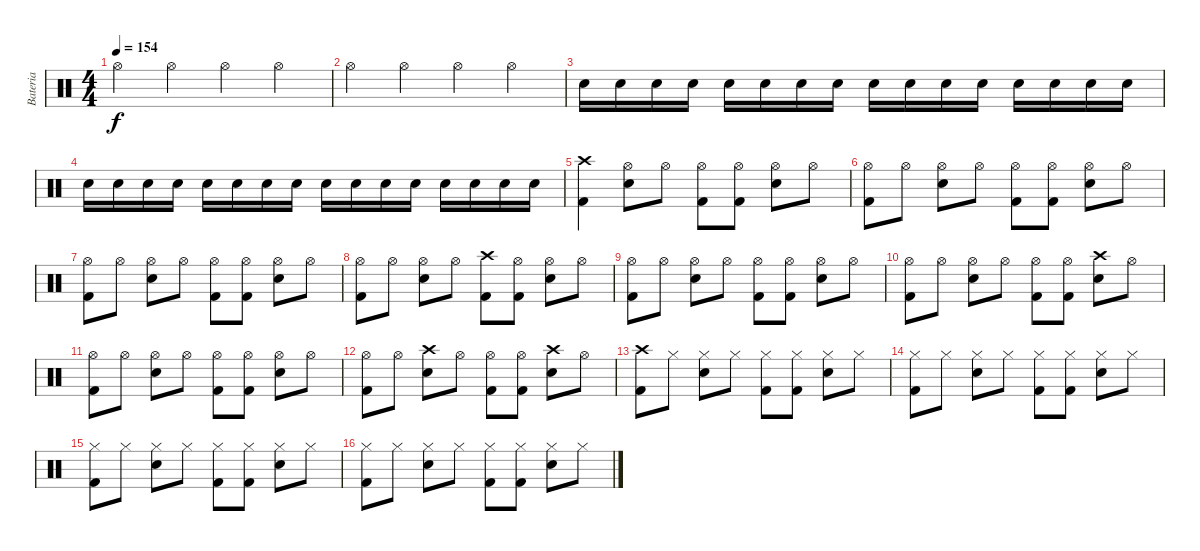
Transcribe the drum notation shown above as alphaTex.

\track ("Bateria" "Bateria") {instrument percussion}
\staff {score}
\articulation defaults
\ts (4 4)
\tempo 154
\clef neutral
\ks c "Hi-Hat (open)".4{dy f} "Hi-Hat (open)".4 "Hi-Hat (open)".4 "Hi-Hat (open)".4
|
"Hi-Hat (open)".4 "Hi-Hat (open)".4 "Hi-Hat (open)".4 "Hi-Hat (open)".4 |
"Electric Snare (hit)".16 "Electric Snare (hit)".16 "Electric Snare (hit)".16 "Electric Snare (hit)".16 "Electric Snare (hit)".16 "Electric Snare (hit)".16 "Electric Snare (hit)".16 "Electric Snare (hit)".16 "Electric Snare (hit)".16 "Electric Snare (hit)".16 "Electric Snare (hit)".16 "Electric Snare (hit)".16 "Electric Snare (hit)".16 "Electric Snare (hit)".16 "Electric Snare (hit)".16 "Electric Snare (hit)".16 |
"Electric Snare (hit)".16 "Electric Snare (hit)".16 "Electric Snare (hit)".16 "Electric Snare (hit)".16 "Electric Snare (hit)".16 "Electric Snare (hit)".16 "Electric Snare (hit)".16 "Electric Snare (hit)".16 "Electric Snare (hit)".16 "Electric Snare (hit)".16 "Electric Snare (hit)".16 "Electric Snare (hit)".16 "Electric Snare (hit)".16 "Electric Snare (hit)".16 "Electric Snare (hit)".16 "Electric Snare (hit)".16 |
("Kick (hit) 2" "Crash high (hit)").4 ("Electric Snare (hit)" "Hi-Hat (open)").8 "Hi-Hat (open)".8 ("Kick (hit) 2" "Hi-Hat (open)").8 ("Kick (hit) 2" "Hi-Hat (open)").8 ("Electric Snare (hit)" "Hi-Hat (open)").8 "Hi-Hat (open)".8 |
("Kick (hit) 2" "Hi-Hat (open)").8 "Hi-Hat (open)".8 ("Electric Snare (hit)" "Hi-Hat (open)").8 "Hi-Hat (open)".8 ("Kick (hit) 2" "Hi-Hat (open)").8 ("Kick (hit) 2" "Hi-Hat (open)").8 ("Electric Snare (hit)" "Hi-Hat (open)").8 "Hi-Hat (open)".8 |
("Kick (hit) 2" "Hi-Hat (open)").8 "Hi-Hat (open)".8 ("Electric Snare (hit)" "Hi-Hat (open)").8 "Hi-Hat (open)".8 ("Kick (hit) 2" "Hi-Hat (open)").8 ("Kick (hit) 2" "Hi-Hat (open)").8 ("Electric Snare (hit)" "Hi-Hat (open)").8 "Hi-Hat (open)".8 |
("Kick (hit) 2" "Hi-Hat (open)").8 "Hi-Hat (open)".8 ("Electric Snare (hit)" "Hi-Hat (open)").8 "Hi-Hat (open)".8 ("Kick (hit) 2" "Crash high (hit)").8 ("Kick (hit) 2" "Hi-Hat (open)").8 ("Electric Snare (hit)" "Hi-Hat (open)").8 "Hi-Hat (open)".8 |
("Kick (hit) 2" "Hi-Hat (open)").8 "Hi-Hat (open)".8 ("Electric Snare (hit)" "Hi-Hat (open)").8 "Hi-Hat (open)".8 ("Kick (hit) 2" "Hi-Hat (open)").8 ("Kick (hit) 2" "Hi-Hat (open)").8 ("Electric Snare (hit)" "Hi-Hat (open)").8 "Hi-Hat (open)".8 |
("Kick (hit) 2" "Hi-Hat (open)").8 "Hi-Hat (open)".8 ("Electric Snare (hit)" "Hi-Hat (open)").8 "Hi-Hat (open)".8 ("Kick (hit) 2" "Hi-Hat (open)").8 ("Kick (hit) 2" "Hi-Hat (open)").8 ("Electric Snare (hit)" "Crash high (hit)").8 "Hi-Hat (open)".8 |
("Kick (hit) 2" "Hi-Hat (open)").8 "Hi-Hat (open)".8 ("Electric Snare (hit)" "Hi-Hat (open)").8 "Hi-Hat (open)".8 ("Kick (hit) 2" "Hi-Hat (open)").8 ("Kick (hit) 2" "Hi-Hat (open)").8 ("Electric Snare (hit)" "Hi-Hat (open)").8 "Hi-Hat (open)".8 |
("Kick (hit) 2" "Hi-Hat (open)").8 "Hi-Hat (open)".8 ("Electric Snare (hit)" "Crash high (hit)").8 "Hi-Hat (open)".8 ("Kick (hit) 2" "Hi-Hat (open)").8 ("Kick (hit) 2" "Hi-Hat (open)").8 ("Electric Snare (hit)" "Crash high (hit)").8 "Hi-Hat (open)".8 |
("Kick (hit) 2" "Crash high (hit)").8 "Hi-Hat (closed)".8 ("Electric Snare (hit)" "Hi-Hat (closed)").8 "Hi-Hat (closed)".8 ("Kick (hit) 2" "Hi-Hat (closed)").8 ("Kick (hit) 2" "Hi-Hat (closed)").8 ("Electric Snare (hit)" "Hi-Hat (closed)").8 "Hi-Hat (closed)".8 |
("Kick (hit) 2" "Hi-Hat (closed)").8 "Hi-Hat (closed)".8 ("Electric Snare (hit)" "Hi-Hat (closed)").8 "Hi-Hat (closed)".8 ("Kick (hit) 2" "Hi-Hat (closed)").8 ("Kick (hit) 2" "Hi-Hat (closed)").8 ("Electric Snare (hit)" "Hi-Hat (closed)").8 "Hi-Hat (closed)".8 |
("Kick (hit) 2" "Hi-Hat (closed)").8 "Hi-Hat (closed)".8 ("Electric Snare (hit)" "Hi-Hat (closed)").8 "Hi-Hat (closed)".8 ("Kick (hit) 2" "Hi-Hat (closed)").8 ("Kick (hit) 2" "Hi-Hat (closed)").8 ("Electric Snare (hit)" "Hi-Hat (closed)").8 "Hi-Hat (closed)".8 |
("Kick (hit) 2" "Hi-Hat (closed)").8 "Hi-Hat (closed)".8 ("Electric Snare (hit)" "Hi-Hat (closed)").8 "Hi-Hat (closed)".8 ("Kick (hit) 2" "Hi-Hat (closed)").8 ("Kick (hit) 2" "Hi-Hat (closed)").8 ("Electric Snare (hit)" "Hi-Hat (closed)").8 "Hi-Hat (closed)".8
